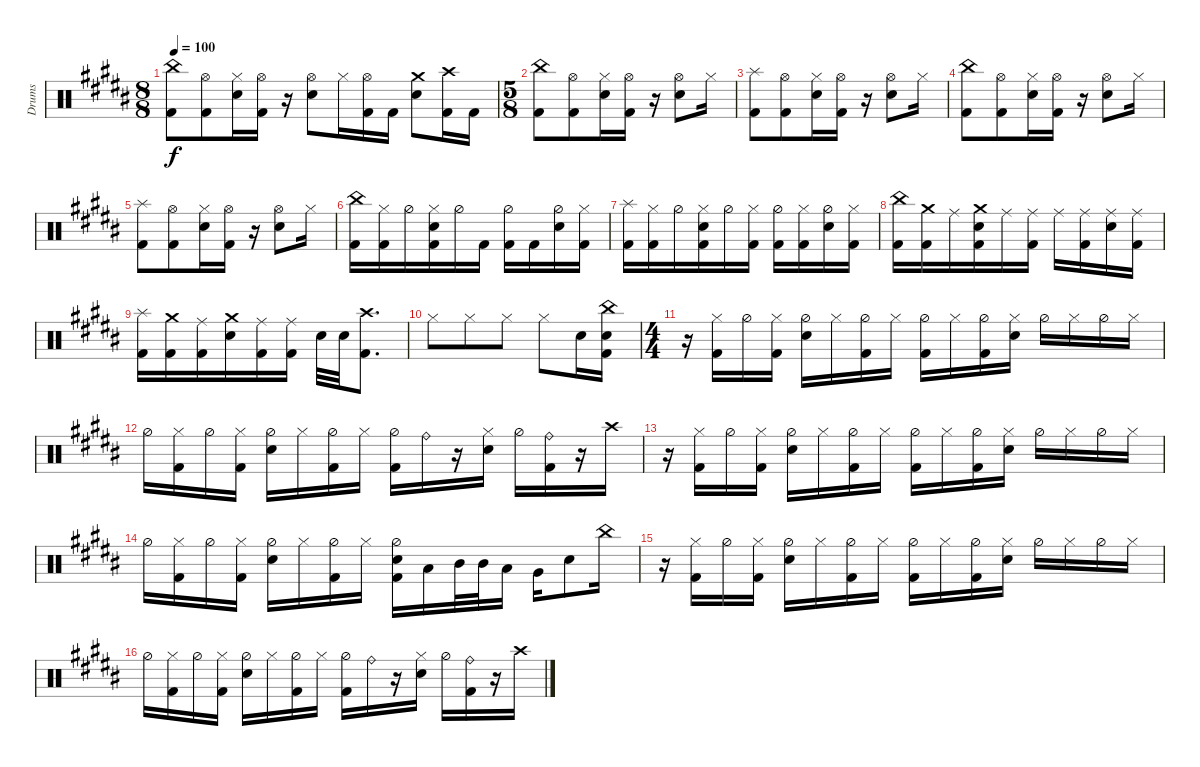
\bracketExtendMode groupsimilarinstruments
\otherSystemsTrackNameOrientation horizontal
\track ("Drumkit" "Drums") {instrument percussion}
\staff {score}
\articulation defaults
\ts (8 8)
\tempo 100
\clef neutral
\ks b
("Kick (hit) 2"{acc bb} "China (hit)"{acc bb}).8{dy f} ("Hi-Hat (open)"{acc bb} "Kick (hit) 2"{acc bb}).8 ("Hi-Hat (closed)"{acc bb} "Snare (hit) 2"{acc bb}).16 ("Hi-Hat (open)"{acc bb} "Kick (hit) 2"{acc bb}).16 r.16 ("Hi-Hat (open)"{acc bb} "Snare (hit) 2"{acc bb}).8 "Hi-Hat (closed)"{acc bb}.16 ("Hi-Hat (open)"{acc bb} "Kick (hit) 2"{acc bb}).16 "Kick (hit) 2"{acc bb}.16 ("Snare (hit) 2"{acc bb} "Crash medium (hit)"{acc bb}).8 ("Crash high (hit)"{acc bb} "Kick (hit) 2"{acc bb}).16 "Kick (hit) 2"{acc bb}.16 |
\ts (5 8)
("Kick (hit) 2"{acc bb} "China (hit)"{acc bb}).8 ("Hi-Hat (open)"{acc bb} "Kick (hit) 2"{acc bb}).8 ("Hi-Hat (closed)"{acc bb} "Snare (hit) 2"{acc bb}).16 ("Hi-Hat (open)"{acc bb} "Kick (hit) 2"{acc bb}).16 r.16 ("Hi-Hat (open)"{acc bb} "Snare (hit) 2"{acc bb}).8 "Hi-Hat (closed)"{acc bb}.16 |
("Kick (hit) 2"{acc bb} "Splash (hit)"{acc bb}).8 ("Hi-Hat (open)"{acc bb} "Kick (hit) 2"{acc bb}).8 ("Hi-Hat (closed)"{acc bb} "Snare (hit) 2"{acc bb}).16 ("Hi-Hat (open)"{acc bb} "Kick (hit) 2"{acc bb}).16 r.16 ("Hi-Hat (open)"{acc bb} "Snare (hit) 2"{acc bb}).8 "Hi-Hat (closed)"{acc bb}.16 |
("Kick (hit) 2"{acc bb} "China (hit)"{acc bb}).8 ("Hi-Hat (open)"{acc bb} "Kick (hit) 2"{acc bb}).8 ("Hi-Hat (closed)"{acc bb} "Snare (hit) 2"{acc bb}).16 ("Hi-Hat (open)"{acc bb} "Kick (hit) 2"{acc bb}).16 r.16 ("Hi-Hat (open)"{acc bb} "Snare (hit) 2"{acc bb}).8 "Hi-Hat (closed)"{acc bb}.16 |
("Kick (hit) 2"{acc bb} "Splash (hit)"{acc bb}).8 ("Hi-Hat (open)"{acc bb} "Kick (hit) 2"{acc bb}).8 ("Hi-Hat (closed)"{acc bb} "Snare (hit) 2"{acc bb}).16 ("Hi-Hat (open)"{acc bb} "Kick (hit) 2"{acc bb}).16 r.16 ("Hi-Hat (open)"{acc bb} "Snare (hit) 2"{acc bb}).8 "Hi-Hat (closed)"{acc bb}.16 |
("Kick (hit) 2"{acc bb} "China (hit)"{acc bb}).16 ("Kick (hit) 2"{acc bb} "Hi-Hat (closed)"{acc bb}).16 "Hi-Hat (half)"{acc bb}.16 ("Kick (hit) 2"{acc bb} "Snare (hit) 2"{acc bb} "Hi-Hat (closed)"{acc bb}).16 "Hi-Hat (half)"{acc bb}.16 "Kick (hit) 2"{acc bb}.16 ("Kick (hit) 2"{acc bb} "Hi-Hat (half)"{acc bb}).16 "Kick (hit) 2"{acc bb}.16 ("Snare (hit) 2"{acc bb} "Hi-Hat (half)"{acc bb}).16 ("Kick (hit) 2"{acc bb} "Hi-Hat (closed)"{acc bb}).16 |
("Splash (hit)"{acc bb} "Kick (hit) 2"{acc bb}).16 ("Kick (hit) 2"{acc bb} "Hi-Hat (closed)"{acc bb}).16 "Hi-Hat (half)"{acc bb}.16 ("Kick (hit) 2"{acc bb} "Snare (hit) 2"{acc bb} "Hi-Hat (closed)"{acc bb}).16 "Hi-Hat (half)"{acc bb}.16 ("Kick (hit) 2"{acc bb} "Hi-Hat (closed)"{acc bb}).16 ("Kick (hit) 2"{acc bb} "Hi-Hat (half)"{acc bb}).16 ("Kick (hit) 2"{acc bb} "Hi-Hat (closed)"{acc bb}).16 ("Snare (hit) 2"{acc bb} "Hi-Hat (half)"{acc bb}).16 ("Kick (hit) 2"{acc bb} "Hi-Hat (closed)"{acc bb}).16 |
("Kick (hit) 2"{acc bb} "China (hit)"{acc bb}).16 ("Kick (hit) 2"{acc bb} "Crash medium (hit)"{acc bb}).16 "Ride (middle)"{acc bb}.16 ("Kick (hit) 2"{acc bb} "Snare (hit) 2"{acc bb} "Crash medium (hit)"{acc bb}).16 "Ride (middle)"{acc bb}.16 ("Kick (hit) 2"{acc bb} "Ride (middle)"{acc bb}).16 "Ride (middle)"{acc bb}.16 ("Kick (hit) 2"{acc bb} "Ride (middle)"{acc bb}).16 ("Ride (middle)"{acc bb} "Snare (hit) 2"{acc bb}).16 ("Kick (hit) 2"{acc bb} "Ride (middle)"{acc bb}).16 |
("Splash (hit)"{acc bb} "Kick (hit) 2"{acc bb}).16 ("Kick (hit) 2"{acc bb} "Crash medium (hit)"{acc bb}).16 ("Ride (middle)"{acc bb} "Kick (hit) 2"{acc bb}).16 ("Snare (hit) 2"{acc bb} "Crash medium (hit)"{acc bb}).16 ("Ride (middle)"{acc bb} "Kick (hit) 2"{acc bb}).16 ("Kick (hit) 2"{acc bb} "Ride (middle)"{acc bb}).16 "Snare (hit) 2"{acc bb}.32 "Snare (hit) 2"{acc bb}.32 ("Crash high (hit)"{acc bb} "Kick (hit) 2"{acc bb}).8{d} |
"Hi-Hat (closed)"{acc bb}.8 "Hi-Hat (closed)"{acc bb}.8 "Hi-Hat (closed)"{acc bb}.8 "Hi-Hat (closed)"{acc bb}.8 "Snare (hit) 2"{acc bb}.16 ("Snare (hit) 2"{acc bb} "China (hit)"{acc bb} "Kick (hit) 2"{acc bb}).16 |
\ts (4 4)
r.16 ("Kick (hit) 2"{acc bb} "Hi-Hat (closed)"{acc bb}).16 "Hi-Hat (half)"{acc bb}.16 ("Hi-Hat (closed)"{acc bb} "Kick (hit) 2"{acc bb}).16 ("Hi-Hat (half)"{acc bb} "Snare (hit) 2"{acc bb}).16 "Hi-Hat (closed)"{acc bb}.16 ("Hi-Hat (half)"{acc bb} "Kick (hit) 2"{acc bb}).16 "Hi-Hat (closed)"{acc bb}.16 ("Hi-Hat (half)"{acc bb} "Kick (hit) 2"{acc bb}).16 "Hi-Hat (closed)"{acc bb}.16 ("Hi-Hat (half)"{acc bb} "Kick (hit) 2"{acc bb}).16 ("Hi-Hat (closed)"{acc bb} "Snare (hit) 2"{acc bb}).16 "Hi-Hat (half)"{acc bb}.16 "Hi-Hat (closed)"{acc bb}.16 "Hi-Hat (half)"{acc bb}.16 "Hi-Hat (closed)"{acc bb}.16 |
"Hi-Hat (half)"{acc bb}.16 ("Kick (hit) 2"{acc bb} "Hi-Hat (closed)"{acc bb}).16 "Hi-Hat (half)"{acc bb}.16 ("Hi-Hat (closed)"{acc bb} "Kick (hit) 2"{acc bb}).16 ("Hi-Hat (half)"{acc bb} "Snare (hit) 2"{acc bb}).16 "Hi-Hat (closed)"{acc bb}.16 ("Hi-Hat (half)"{acc bb} "Kick (hit) 2"{acc bb}).16 "Hi-Hat (closed)"{acc bb}.16 ("Hi-Hat (half)"{acc bb} "Kick (hit) 2"{acc bb}).16 "Ride (bell)"{acc bb}.16 r.16 ("Hi-Hat (closed)"{acc bb} "Snare (hit) 2"{acc bb}).16 "Hi-Hat (half)"{acc bb}.16 ("Kick (hit) 2"{acc bb} "Ride (bell)"{acc bb}).16 r.16 "Crash high (hit)"{acc bb}.16 |
r.16 ("Kick (hit) 2"{acc bb} "Hi-Hat (closed)"{acc bb}).16 "Hi-Hat (half)"{acc bb}.16 ("Hi-Hat (closed)"{acc bb} "Kick (hit) 2"{acc bb}).16 ("Hi-Hat (half)"{acc bb} "Snare (hit) 2"{acc bb}).16 "Hi-Hat (closed)"{acc bb}.16 ("Hi-Hat (half)"{acc bb} "Kick (hit) 2"{acc bb}).16 "Hi-Hat (closed)"{acc bb}.16 ("Hi-Hat (half)"{acc bb} "Kick (hit) 2"{acc bb}).16 "Hi-Hat (closed)"{acc bb}.16 ("Hi-Hat (half)"{acc bb} "Kick (hit) 2"{acc bb}).16 ("Hi-Hat (closed)"{acc bb} "Snare (hit) 2"{acc bb}).16 "Hi-Hat (half)"{acc bb}.16 "Hi-Hat (closed)"{acc bb}.16 "Hi-Hat (half)"{acc bb}.16 "Hi-Hat (closed)"{acc bb}.16 |
"Hi-Hat (half)"{acc bb}.16 ("Kick (hit) 2"{acc bb} "Hi-Hat (closed)"{acc bb}).16 "Hi-Hat (half)"{acc bb}.16 ("Hi-Hat (closed)"{acc bb} "Kick (hit) 2"{acc bb}).16 ("Hi-Hat (half)"{acc bb} "Snare (hit) 2"{acc bb}).16 "Hi-Hat (closed)"{acc bb}.16 ("Hi-Hat (half)"{acc bb} "Kick (hit) 2"{acc bb}).16 "Hi-Hat (closed)"{acc bb}.16 ("Hi-Hat (half)"{acc bb} "Kick (hit) 2"{acc bb} "Snare (hit) 2"{acc bb}).16 "Low Tom (hit)"{acc bb}.16 "Mid Tom (hit)"{acc bb}.32 "Mid Tom (hit)"{acc bb}.32 "Low Tom (hit)"{acc bb}.16 "Very Low Tom (hit)"{acc bb}.16 "Snare (hit) 2"{acc bb}.8 "China (hit)"{acc bb}.16 |
r.16 ("Kick (hit) 2"{acc bb} "Hi-Hat (closed)"{acc bb}).16 "Hi-Hat (half)"{acc bb}.16 ("Hi-Hat (closed)"{acc bb} "Kick (hit) 2"{acc bb}).16 ("Hi-Hat (half)"{acc bb} "Snare (hit) 2"{acc bb}).16 "Hi-Hat (closed)"{acc bb}.16 ("Hi-Hat (half)"{acc bb} "Kick (hit) 2"{acc bb}).16 "Hi-Hat (closed)"{acc bb}.16 ("Hi-Hat (half)"{acc bb} "Kick (hit) 2"{acc bb}).16 "Hi-Hat (closed)"{acc bb}.16 ("Hi-Hat (half)"{acc bb} "Kick (hit) 2"{acc bb}).16 ("Hi-Hat (closed)"{acc bb} "Snare (hit) 2"{acc bb}).16 "Hi-Hat (half)"{acc bb}.16 "Hi-Hat (closed)"{acc bb}.16 "Hi-Hat (half)"{acc bb}.16 "Hi-Hat (closed)"{acc bb}.16 |
"Hi-Hat (half)"{acc bb}.16 ("Kick (hit) 2"{acc bb} "Hi-Hat (closed)"{acc bb}).16 "Hi-Hat (half)"{acc bb}.16 ("Hi-Hat (closed)"{acc bb} "Kick (hit) 2"{acc bb}).16 ("Hi-Hat (half)"{acc bb} "Snare (hit) 2"{acc bb}).16 "Hi-Hat (closed)"{acc bb}.16 ("Hi-Hat (half)"{acc bb} "Kick (hit) 2"{acc bb}).16 "Hi-Hat (closed)"{acc bb}.16 ("Hi-Hat (half)"{acc bb} "Kick (hit) 2"{acc bb}).16 "Ride (bell)"{acc bb}.16 r.16 ("Hi-Hat (closed)"{acc bb} "Snare (hit) 2"{acc bb}).16 "Hi-Hat (half)"{acc bb}.16 ("Kick (hit) 2"{acc bb} "Ride (bell)"{acc bb}).16 r.16 "Crash high (hit)"{acc bb}.16
